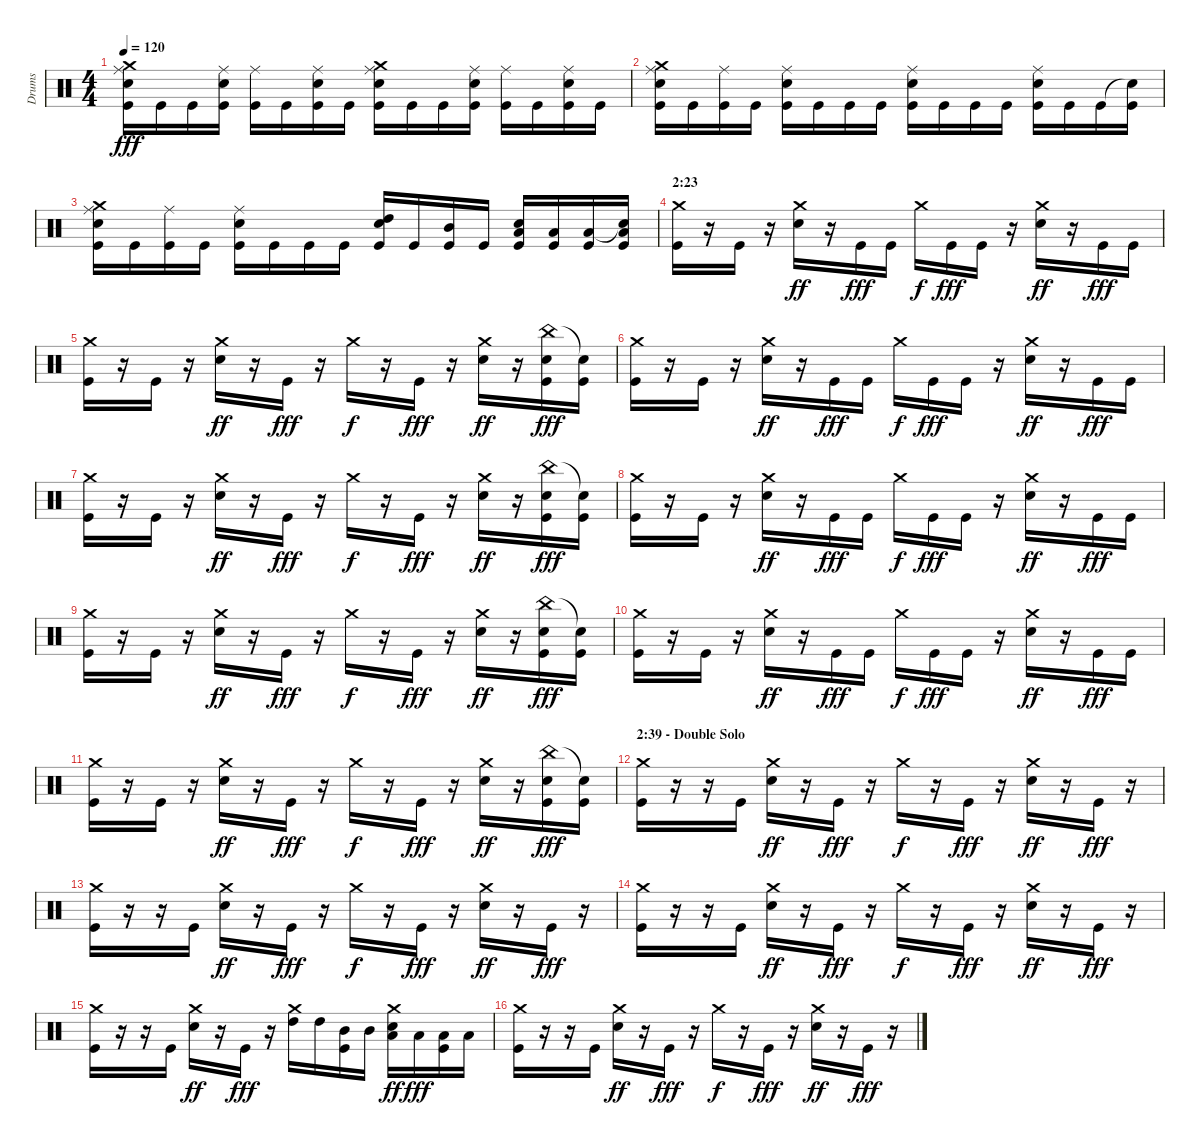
\track ("Drums" "Drums") {instrument percussion}
\staff {score}
\articulation defaults
\ts (4 4)
\tempo 120
\clef neutral
\ks c
("Crash medium (hit)" "Ride (middle)" "Snare (hit) 2" "Kick (hit)").16{dy fff} "Kick (hit)".16 "Kick (hit)".16 ("Ride (middle)" "Snare (hit) 2" "Kick (hit)").16 ("Ride (middle)" "Kick (hit)").16 "Kick (hit)".16 ("Ride (middle)" "Snare (hit) 2" "Kick (hit)").16 "Kick (hit)".16 ("Crash medium (hit)" "Ride (middle)" "Snare (hit) 2" "Kick (hit)").16 "Kick (hit)".16 "Kick (hit)".16 ("Ride (middle)" "Snare (hit) 2" "Kick (hit)").16 ("Ride (middle)" "Kick (hit)").16 "Kick (hit)".16 ("Ride (middle)" "Snare (hit) 2" "Kick (hit)").16 "Kick (hit)".16 |
("Ride (middle)" "Crash medium (hit)" "Snare (hit) 2" "Kick (hit)").16 "Kick (hit)".16 ("Ride (middle)" "Kick (hit)").16 "Kick (hit)".16 ("Ride (middle)" "Snare (hit) 2" "Kick (hit)").16 "Kick (hit)".16 "Kick (hit)".16 "Kick (hit)".16 ("Ride (middle)" "Snare (hit) 2" "Kick (hit)").16 "Kick (hit)".16 "Kick (hit)".16 "Kick (hit)".16 ("Ride (middle)" "Snare (hit) 2" "Kick (hit)").16 "Kick (hit)".16 "Kick (hit)".16 ("Snare (hit)"{t} "Kick (hit)").16 |
("Ride (middle)" "Crash medium (hit)" "Snare (hit) 2" "Kick (hit)").16 "Kick (hit)".16 ("Ride (middle)" "Kick (hit)").16 "Kick (hit)".16 ("Ride (middle)" "Snare (hit) 2" "Kick (hit)").16 "Kick (hit)".16 "Kick (hit)".16 "Kick (hit)".16 ("High Tom (hit)" "Snare (hit) 2" "Kick (hit)").16 "Kick (hit)".16 ("Mid Tom (hit)" "Kick (hit)").16 "Kick (hit)".16 ("Low Tom (hit)" "Snare (hit) 2" "Kick (hit)").16 ("Low Tom (hit)" "Kick (hit)").16 ("Low Floor Tom (hit)" "Kick (hit)").16 ("Snare (hit)"{t} "Low Floor Tom (hit)" "Kick (hit)").16 |
\section ("" "2:23")
("Crash medium (hit)" "Kick (hit)").16 r.16 "Kick (hit)".16 r.16 ("Crash medium (hit)" "Electric Snare (hit)").16{dy ff} r.16 "Kick (hit)".16{dy fff} "Kick (hit)".16 "Crash medium (hit)".16{dy f} "Kick (hit)".16{dy fff} "Kick (hit)".16 r.16 ("Crash medium (hit)" "Electric Snare (hit)").16{dy ff} r.16 "Kick (hit)".16{dy fff} "Kick (hit)".16 |
("Crash medium (hit)" "Kick (hit)").16 r.16 "Kick (hit)".16 r.16 ("Crash medium (hit)" "Electric Snare (hit)").16{dy ff} r.16 "Kick (hit)".16{dy fff} r.16 "Crash medium (hit)".16{dy f} r.16 "Kick (hit)".16{dy fff} r.16 ("Crash medium (hit)" "Electric Snare (hit)").16{dy ff} r.16 ("China (hit)" "Electric Snare (hit)" "Kick (hit)").16{dy fff} ("Snare (hit)"{t} "Kick (hit)").16 |
("Crash medium (hit)" "Kick (hit)").16 r.16 "Kick (hit)".16 r.16 ("Crash medium (hit)" "Electric Snare (hit)").16{dy ff} r.16 "Kick (hit)".16{dy fff} "Kick (hit)".16 "Crash medium (hit)".16{dy f} "Kick (hit)".16{dy fff} "Kick (hit)".16 r.16 ("Crash medium (hit)" "Electric Snare (hit)").16{dy ff} r.16 "Kick (hit)".16{dy fff} "Kick (hit)".16 |
("Crash medium (hit)" "Kick (hit)").16 r.16 "Kick (hit)".16 r.16 ("Crash medium (hit)" "Electric Snare (hit)").16{dy ff} r.16 "Kick (hit)".16{dy fff} r.16 "Crash medium (hit)".16{dy f} r.16 "Kick (hit)".16{dy fff} r.16 ("Crash medium (hit)" "Electric Snare (hit)").16{dy ff} r.16 ("China (hit)" "Electric Snare (hit)" "Kick (hit)").16{dy fff} ("Snare (hit)"{t} "Kick (hit)").16 |
("Crash medium (hit)" "Kick (hit)").16 r.16 "Kick (hit)".16 r.16 ("Crash medium (hit)" "Electric Snare (hit)").16{dy ff} r.16 "Kick (hit)".16{dy fff} "Kick (hit)".16 "Crash medium (hit)".16{dy f} "Kick (hit)".16{dy fff} "Kick (hit)".16 r.16 ("Crash medium (hit)" "Electric Snare (hit)").16{dy ff} r.16 "Kick (hit)".16{dy fff} "Kick (hit)".16 |
("Crash medium (hit)" "Kick (hit)").16 r.16 "Kick (hit)".16 r.16 ("Crash medium (hit)" "Electric Snare (hit)").16{dy ff} r.16 "Kick (hit)".16{dy fff} r.16 "Crash medium (hit)".16{dy f} r.16 "Kick (hit)".16{dy fff} r.16 ("Crash medium (hit)" "Electric Snare (hit)").16{dy ff} r.16 ("China (hit)" "Electric Snare (hit)" "Kick (hit)").16{dy fff} ("Snare (hit)"{t} "Kick (hit)").16 |
("Crash medium (hit)" "Kick (hit)").16 r.16 "Kick (hit)".16 r.16 ("Crash medium (hit)" "Electric Snare (hit)").16{dy ff} r.16 "Kick (hit)".16{dy fff} "Kick (hit)".16 "Crash medium (hit)".16{dy f} "Kick (hit)".16{dy fff} "Kick (hit)".16 r.16 ("Crash medium (hit)" "Electric Snare (hit)").16{dy ff} r.16 "Kick (hit)".16{dy fff} "Kick (hit)".16 |
("Crash medium (hit)" "Kick (hit)").16 r.16 "Kick (hit)".16 r.16 ("Crash medium (hit)" "Electric Snare (hit)").16{dy ff} r.16 "Kick (hit)".16{dy fff} r.16 "Crash medium (hit)".16{dy f} r.16 "Kick (hit)".16{dy fff} r.16 ("Crash medium (hit)" "Electric Snare (hit)").16{dy ff} r.16 ("China (hit)" "Electric Snare (hit)" "Kick (hit)").16{dy fff} ("Snare (hit)"{t} "Kick (hit)").16 |
\section ("" "2:39 - Double Solo")
("Crash medium (hit)" "Kick (hit)").16 r.16 r.16 "Kick (hit)".16 ("Crash medium (hit)" "Electric Snare (hit)").16{dy ff} r.16 "Kick (hit)".16{dy fff} r.16 "Crash medium (hit)".16{dy f} r.16 "Kick (hit)".16{dy fff} r.16 ("Crash medium (hit)" "Electric Snare (hit)").16{dy ff} r.16 "Kick (hit)".16{dy fff} r.16 |
("Crash medium (hit)" "Kick (hit)").16 r.16 r.16 "Kick (hit)".16 ("Crash medium (hit)" "Electric Snare (hit)").16{dy ff} r.16 "Kick (hit)".16{dy fff} r.16 "Crash medium (hit)".16{dy f} r.16 "Kick (hit)".16{dy fff} r.16 ("Crash medium (hit)" "Electric Snare (hit)").16{dy ff} r.16 "Kick (hit)".16{dy fff} r.16 |
("Crash medium (hit)" "Kick (hit)").16 r.16 r.16 "Kick (hit)".16 ("Crash medium (hit)" "Electric Snare (hit)").16{dy ff} r.16 "Kick (hit)".16{dy fff} r.16 "Crash medium (hit)".16{dy f} r.16 "Kick (hit)".16{dy fff} r.16 ("Crash medium (hit)" "Electric Snare (hit)").16{dy ff} r.16 "Kick (hit)".16{dy fff} r.16 |
("Crash medium (hit)" "Kick (hit)").16 r.16 r.16 "Kick (hit)".16 ("Crash medium (hit)" "Electric Snare (hit)").16{dy ff} r.16 "Kick (hit)".16{dy fff} r.16 ("Crash medium (hit)" "High Tom (hit)").16 "High Tom (hit)".16 ("Mid Tom (hit)" "Kick (hit)").16 "Mid Tom (hit)".16 ("Crash medium (hit)" "Low Tom (hit)" "Electric Snare (hit)").16{dy ff} "Low Tom (hit)".16{dy fff} ("Low Floor Tom (hit)" "Kick (hit)").16 "Low Floor Tom (hit)".16 |
("Crash medium (hit)" "Kick (hit)").16 r.16 r.16 "Kick (hit)".16 ("Crash medium (hit)" "Electric Snare (hit)").16{dy ff} r.16 "Kick (hit)".16{dy fff} r.16 "Crash medium (hit)".16{dy f} r.16 "Kick (hit)".16{dy fff} r.16 ("Crash medium (hit)" "Electric Snare (hit)").16{dy ff} r.16 "Kick (hit)".16{dy fff} r.16
